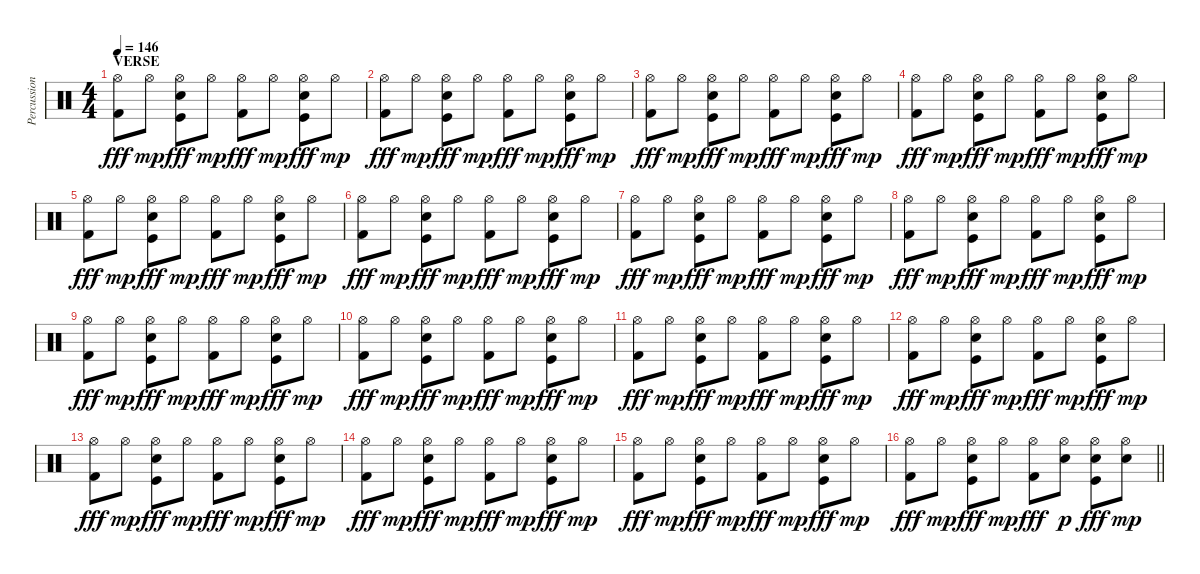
\track ("Percussion" "Percussion") {instrument percussion}
\staff {score}
\articulation defaults
\ts (4 4)
\section ("" "VERSE")
\tempo 146
\clef neutral
\ks c
("Hi-Hat (open)" "Kick (hit) 2").8{dy fff} "Hi-Hat (open)".8{dy mp} ("Hi-Hat (open)" "Kick (hit)" "Snare (hit) 2").8{dy fff} "Hi-Hat (open)".8{dy mp} ("Hi-Hat (open)" "Kick (hit) 2").8{dy fff} "Hi-Hat (open)".8{dy mp} ("Hi-Hat (open)" "Kick (hit)" "Snare (hit) 2").8{dy fff} "Hi-Hat (open)".8{dy mp} |
("Hi-Hat (open)" "Kick (hit) 2").8{dy fff} "Hi-Hat (open)".8{dy mp} ("Hi-Hat (open)" "Kick (hit)" "Snare (hit) 2").8{dy fff} "Hi-Hat (open)".8{dy mp} ("Hi-Hat (open)" "Kick (hit) 2").8{dy fff} "Hi-Hat (open)".8{dy mp} ("Hi-Hat (open)" "Kick (hit)" "Snare (hit) 2").8{dy fff} "Hi-Hat (open)".8{dy mp} |
("Hi-Hat (open)" "Kick (hit) 2").8{dy fff} "Hi-Hat (open)".8{dy mp} ("Hi-Hat (open)" "Kick (hit)" "Snare (hit) 2").8{dy fff} "Hi-Hat (open)".8{dy mp} ("Hi-Hat (open)" "Kick (hit) 2").8{dy fff} "Hi-Hat (open)".8{dy mp} ("Hi-Hat (open)" "Kick (hit)" "Snare (hit) 2").8{dy fff} "Hi-Hat (open)".8{dy mp} |
("Hi-Hat (open)" "Kick (hit) 2").8{dy fff} "Hi-Hat (open)".8{dy mp} ("Hi-Hat (open)" "Kick (hit)" "Snare (hit) 2").8{dy fff} "Hi-Hat (open)".8{dy mp} ("Hi-Hat (open)" "Kick (hit) 2").8{dy fff} "Hi-Hat (open)".8{dy mp} ("Hi-Hat (open)" "Kick (hit)" "Snare (hit) 2").8{dy fff} "Hi-Hat (open)".8{dy mp} |
("Hi-Hat (open)" "Kick (hit) 2").8{dy fff} "Hi-Hat (open)".8{dy mp} ("Hi-Hat (open)" "Kick (hit)" "Snare (hit) 2").8{dy fff} "Hi-Hat (open)".8{dy mp} ("Hi-Hat (open)" "Kick (hit) 2").8{dy fff} "Hi-Hat (open)".8{dy mp} ("Hi-Hat (open)" "Kick (hit)" "Snare (hit) 2").8{dy fff} "Hi-Hat (open)".8{dy mp} |
("Hi-Hat (open)" "Kick (hit) 2").8{dy fff} "Hi-Hat (open)".8{dy mp} ("Hi-Hat (open)" "Kick (hit)" "Snare (hit) 2").8{dy fff} "Hi-Hat (open)".8{dy mp} ("Hi-Hat (open)" "Kick (hit) 2").8{dy fff} "Hi-Hat (open)".8{dy mp} ("Hi-Hat (open)" "Kick (hit)" "Snare (hit) 2").8{dy fff} "Hi-Hat (open)".8{dy mp} |
("Hi-Hat (open)" "Kick (hit) 2").8{dy fff} "Hi-Hat (open)".8{dy mp} ("Hi-Hat (open)" "Kick (hit)" "Snare (hit) 2").8{dy fff} "Hi-Hat (open)".8{dy mp} ("Hi-Hat (open)" "Kick (hit) 2").8{dy fff} "Hi-Hat (open)".8{dy mp} ("Hi-Hat (open)" "Kick (hit)" "Snare (hit) 2").8{dy fff} "Hi-Hat (open)".8{dy mp} |
("Hi-Hat (open)" "Kick (hit) 2").8{dy fff} "Hi-Hat (open)".8{dy mp} ("Hi-Hat (open)" "Kick (hit)" "Snare (hit) 2").8{dy fff} "Hi-Hat (open)".8{dy mp} ("Hi-Hat (open)" "Kick (hit) 2").8{dy fff} "Hi-Hat (open)".8{dy mp} ("Hi-Hat (open)" "Kick (hit)" "Snare (hit) 2").8{dy fff} "Hi-Hat (open)".8{dy mp} |
("Hi-Hat (open)" "Kick (hit) 2").8{dy fff} "Hi-Hat (open)".8{dy mp} ("Hi-Hat (open)" "Kick (hit)" "Snare (hit) 2").8{dy fff} "Hi-Hat (open)".8{dy mp} ("Hi-Hat (open)" "Kick (hit) 2").8{dy fff} "Hi-Hat (open)".8{dy mp} ("Hi-Hat (open)" "Kick (hit)" "Snare (hit) 2").8{dy fff} "Hi-Hat (open)".8{dy mp} |
("Hi-Hat (open)" "Kick (hit) 2").8{dy fff} "Hi-Hat (open)".8{dy mp} ("Hi-Hat (open)" "Kick (hit)" "Snare (hit) 2").8{dy fff} "Hi-Hat (open)".8{dy mp} ("Hi-Hat (open)" "Kick (hit) 2").8{dy fff} "Hi-Hat (open)".8{dy mp} ("Hi-Hat (open)" "Kick (hit)" "Snare (hit) 2").8{dy fff} "Hi-Hat (open)".8{dy mp} |
("Hi-Hat (open)" "Kick (hit) 2").8{dy fff} "Hi-Hat (open)".8{dy mp} ("Hi-Hat (open)" "Kick (hit)" "Snare (hit) 2").8{dy fff} "Hi-Hat (open)".8{dy mp} ("Hi-Hat (open)" "Kick (hit) 2").8{dy fff} "Hi-Hat (open)".8{dy mp} ("Hi-Hat (open)" "Kick (hit)" "Snare (hit) 2").8{dy fff} "Hi-Hat (open)".8{dy mp} |
("Hi-Hat (open)" "Kick (hit) 2").8{dy fff} "Hi-Hat (open)".8{dy mp} ("Hi-Hat (open)" "Kick (hit)" "Snare (hit) 2").8{dy fff} "Hi-Hat (open)".8{dy mp} ("Hi-Hat (open)" "Kick (hit) 2").8{dy fff} "Hi-Hat (open)".8{dy mp} ("Hi-Hat (open)" "Kick (hit)" "Snare (hit) 2").8{dy fff} "Hi-Hat (open)".8{dy mp} |
("Hi-Hat (open)" "Kick (hit) 2").8{dy fff} "Hi-Hat (open)".8{dy mp} ("Hi-Hat (open)" "Kick (hit)" "Snare (hit) 2").8{dy fff} "Hi-Hat (open)".8{dy mp} ("Hi-Hat (open)" "Kick (hit) 2").8{dy fff} "Hi-Hat (open)".8{dy mp} ("Hi-Hat (open)" "Kick (hit)" "Snare (hit) 2").8{dy fff} "Hi-Hat (open)".8{dy mp} |
("Hi-Hat (open)" "Kick (hit) 2").8{dy fff} "Hi-Hat (open)".8{dy mp} ("Hi-Hat (open)" "Kick (hit)" "Snare (hit) 2").8{dy fff} "Hi-Hat (open)".8{dy mp} ("Hi-Hat (open)" "Kick (hit) 2").8{dy fff} "Hi-Hat (open)".8{dy mp} ("Hi-Hat (open)" "Kick (hit)" "Snare (hit) 2").8{dy fff} "Hi-Hat (open)".8{dy mp} |
("Hi-Hat (open)" "Kick (hit) 2").8{dy fff} "Hi-Hat (open)".8{dy mp} ("Hi-Hat (open)" "Kick (hit)" "Snare (hit) 2").8{dy fff} "Hi-Hat (open)".8{dy mp} ("Hi-Hat (open)" "Kick (hit) 2").8{dy fff} "Hi-Hat (open)".8{dy mp} ("Hi-Hat (open)" "Kick (hit)" "Snare (hit) 2").8{dy fff} "Hi-Hat (open)".8{dy mp} |
\barLineRight lightlight
("Hi-Hat (open)" "Kick (hit) 2").8{dy fff} "Hi-Hat (open)".8{dy mp} ("Hi-Hat (open)" "Kick (hit)" "Snare (hit) 2").8{dy fff} "Hi-Hat (open)".8{dy mp} ("Hi-Hat (open)" "Kick (hit) 2").8{dy fff} ("Hi-Hat (open)" "Snare (hit) 2").8{dy p} ("Hi-Hat (open)" "Kick (hit)" "Snare (hit) 2").8{dy fff} ("Hi-Hat (open)" "Snare (hit) 2").8{dy mp}
